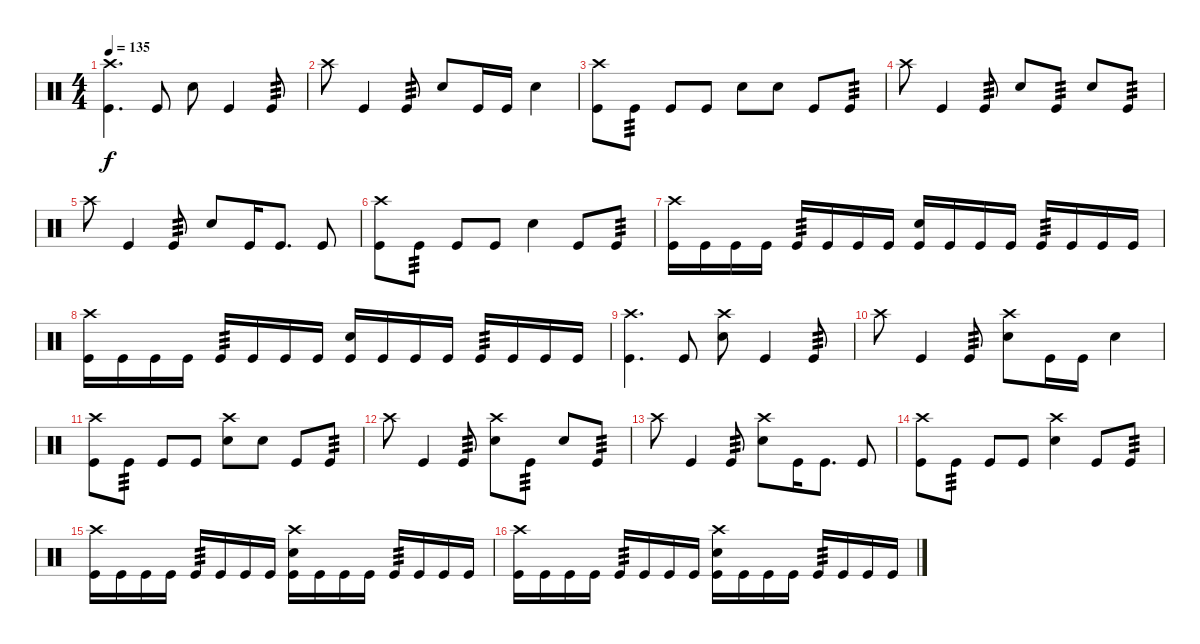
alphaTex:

\track "" {instrument percussion}
\staff {score}
\articulation defaults
\ts (4 4)
\tempo 135
\clef neutral
\ks c
("Crash high (hit)" "Kick (hit)").4{d dy f} "Kick (hit)".8 "Snare (hit) 2".8 "Kick (hit)".4 "Kick (hit)".8{tp 3} |
"Crash high (hit)".8 "Kick (hit)".4 "Kick (hit)".8{tp 3} "Snare (hit) 2".8 "Kick (hit)".16 "Kick (hit)".16 "Snare (hit) 2".4 |
("Crash high (hit)" "Kick (hit)").8 "Kick (hit)".8{tp 3} "Kick (hit)".8 "Kick (hit)".8 "Snare (hit) 2".8 "Snare (hit) 2".8 "Kick (hit)".8 "Kick (hit)".8{tp 3} |
"Crash high (hit)".8 "Kick (hit)".4 "Kick (hit)".8{tp 3} "Snare (hit) 2".8 "Kick (hit)".8{tp 3} "Snare (hit) 2".8 "Kick (hit)".8{tp 3} |
"Crash high (hit)".8 "Kick (hit)".4 "Kick (hit)".8{tp 3} "Snare (hit) 2".8 "Kick (hit)".16 "Kick (hit)".8{d} "Kick (hit)".8 |
("Crash high (hit)" "Kick (hit)").8 "Kick (hit)".8{tp 3} "Kick (hit)".8 "Kick (hit)".8 "Snare (hit) 2".4 "Kick (hit)".8 "Kick (hit)".8{tp 3} |
("Crash high (hit)" "Kick (hit)").16 "Kick (hit)".16 "Kick (hit)".16 "Kick (hit)".16 "Kick (hit)".16{tp 3} "Kick (hit)".16 "Kick (hit)".16 "Kick (hit)".16 ("Snare (hit) 2" "Kick (hit)").16 "Kick (hit)".16 "Kick (hit)".16 "Kick (hit)".16 "Kick (hit)".16{tp 3} "Kick (hit)".16 "Kick (hit)".16 "Kick (hit)".16 |
("Crash high (hit)" "Kick (hit)").16 "Kick (hit)".16 "Kick (hit)".16 "Kick (hit)".16 "Kick (hit)".16{tp 3} "Kick (hit)".16 "Kick (hit)".16 "Kick (hit)".16 ("Snare (hit) 2" "Kick (hit)").16 "Kick (hit)".16 "Kick (hit)".16 "Kick (hit)".16 "Kick (hit)".16{tp 3} "Kick (hit)".16 "Kick (hit)".16 "Kick (hit)".16 |
("Crash high (hit)" "Kick (hit)").4{d} "Kick (hit)".8 ("Crash high (hit)" "Snare (hit) 2").8 "Kick (hit)".4 "Kick (hit)".8{tp 3} |
"Crash high (hit)".8 "Kick (hit)".4 "Kick (hit)".8{tp 3} ("Crash high (hit)" "Snare (hit) 2").8 "Kick (hit)".16 "Kick (hit)".16 "Snare (hit) 2".4 |
("Crash high (hit)" "Kick (hit)").8 "Kick (hit)".8{tp 3} "Kick (hit)".8 "Kick (hit)".8 ("Crash high (hit)" "Snare (hit) 2").8 "Snare (hit) 2".8 "Kick (hit)".8 "Kick (hit)".8{tp 3} |
"Crash high (hit)".8 "Kick (hit)".4 "Kick (hit)".8{tp 3} ("Crash high (hit)" "Snare (hit) 2").8 "Kick (hit)".8{tp 3} "Snare (hit) 2".8 "Kick (hit)".8{tp 3} |
"Crash high (hit)".8 "Kick (hit)".4 "Kick (hit)".8{tp 3} ("Crash high (hit)" "Snare (hit) 2").8 "Kick (hit)".16 "Kick (hit)".8{d} "Kick (hit)".8 |
("Crash high (hit)" "Kick (hit)").8 "Kick (hit)".8{tp 3} "Kick (hit)".8 "Kick (hit)".8 ("Crash high (hit)" "Snare (hit) 2").4 "Kick (hit)".8 "Kick (hit)".8{tp 3} |
("Crash high (hit)" "Kick (hit)").16 "Kick (hit)".16 "Kick (hit)".16 "Kick (hit)".16 "Kick (hit)".16{tp 3} "Kick (hit)".16 "Kick (hit)".16 "Kick (hit)".16 ("Crash high (hit)" "Snare (hit) 2" "Kick (hit)").16 "Kick (hit)".16 "Kick (hit)".16 "Kick (hit)".16 "Kick (hit)".16{tp 3} "Kick (hit)".16 "Kick (hit)".16 "Kick (hit)".16 |
("Crash high (hit)" "Kick (hit)").16 "Kick (hit)".16 "Kick (hit)".16 "Kick (hit)".16 "Kick (hit)".16{tp 3} "Kick (hit)".16 "Kick (hit)".16 "Kick (hit)".16 ("Crash high (hit)" "Snare (hit) 2" "Kick (hit)").16 "Kick (hit)".16 "Kick (hit)".16 "Kick (hit)".16 "Kick (hit)".16{tp 3} "Kick (hit)".16 "Kick (hit)".16 "Kick (hit)".16
